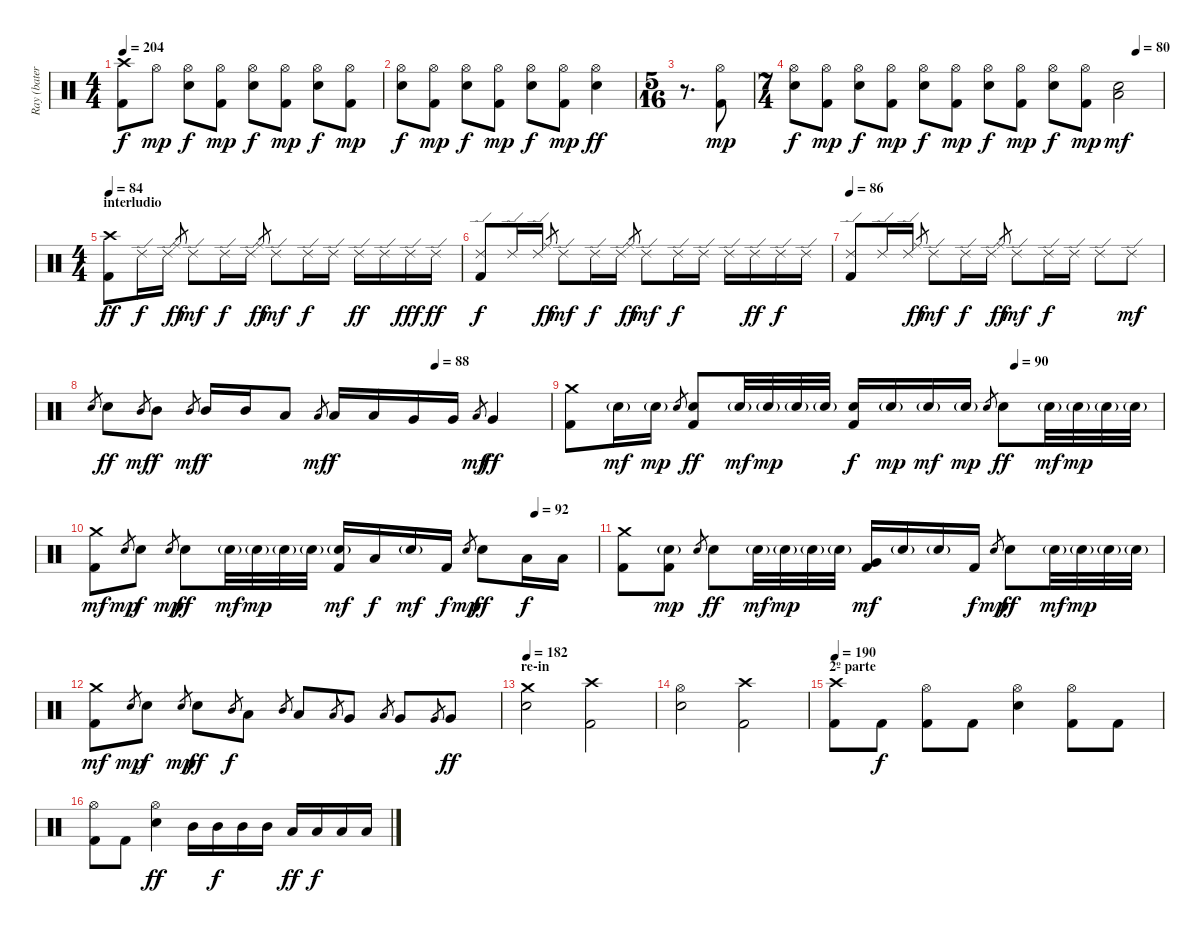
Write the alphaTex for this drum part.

\track ("Ray (batería)" "Ray (bater") {instrument percussion}
\staff {score}
\articulation defaults
\ts (4 4)
\tempo 204
\clef neutral
\ks c
("Crash high (hit)" "Kick (hit) 2").8{dy f} "Hi-Hat (open)".8{dy mp} ("Hi-Hat (open)" "Snare (hit) 2").8{dy f} ("Hi-Hat (open)" "Kick (hit) 2").8{dy mp} ("Hi-Hat (open)" "Snare (hit) 2").8{dy f} ("Hi-Hat (open)" "Kick (hit) 2").8{dy mp} ("Hi-Hat (open)" "Snare (hit) 2").8{dy f} ("Hi-Hat (open)" "Kick (hit) 2").8{dy mp} |
("Hi-Hat (open)" "Snare (hit) 2").8{dy f} ("Hi-Hat (open)" "Kick (hit) 2").8{dy mp} ("Hi-Hat (open)" "Snare (hit) 2").8{dy f} ("Hi-Hat (open)" "Kick (hit) 2").8{dy mp} ("Hi-Hat (open)" "Snare (hit) 2").8{dy f} ("Hi-Hat (open)" "Kick (hit) 2").8{dy mp} ("Hi-Hat (open)" "Snare (hit) 2").4{dy ff} |
\ts (5 16)
r.8{d} ("Hi-Hat (open)" "Kick (hit) 2").8{dy mp} |
\ts (7 4)
\tempo (80 0.9285714285714286)
("Hi-Hat (open)" "Snare (hit) 2").8{dy f} ("Hi-Hat (open)" "Kick (hit) 2").8{dy mp} ("Hi-Hat (open)" "Snare (hit) 2").8{dy f} ("Hi-Hat (open)" "Kick (hit) 2").8{dy mp} ("Hi-Hat (open)" "Snare (hit) 2").8{dy f} ("Hi-Hat (open)" "Kick (hit) 2").8{dy mp} ("Hi-Hat (open)" "Snare (hit) 2").8{dy f} ("Hi-Hat (open)" "Kick (hit) 2").8{dy mp} ("Hi-Hat (open)" "Snare (hit) 2").8{dy f} ("Hi-Hat (open)" "Kick (hit) 2").8{dy mp} ("Snare (hit) 2" "Low Tom (hit)").2{dy mf} |
\ts (4 4)
\section ("" "interludio")
\tempo 84
("Crash high (hit)" "Kick (hit) 2").8{dy ff} "Ride (edge) 2".16{dy f} "Ride (edge) 2".16 "Ride (middle)".8{gr dy ff} "Ride (edge) 2".8{dy mf} "Ride (edge) 2".16{dy f} "Ride (edge) 2".16 "Ride (middle)".8{gr dy ff} "Ride (edge) 2".8{dy mf} "Ride (edge) 2".16{dy f} "Ride (edge) 2".16 "Ride (edge) 2".16{dy ff} "Ride (edge) 2".16 "Ride (edge) 2".16{dy fff} "Ride (edge) 2".16{dy ff} |
("Ride (edge) 2" "Kick (hit) 2").8{dy f} "Ride (edge) 2".16 "Ride (edge) 2".16 "Ride (middle)".8{gr dy ff} "Ride (edge) 2".8{dy mf} "Ride (edge) 2".16{dy f} "Ride (edge) 2".16 "Ride (middle)".8{gr dy ff} "Ride (edge) 2".8{dy mf} "Ride (edge) 2".16{dy f} "Ride (edge) 2".16 "Ride (edge) 2".16 "Ride (edge) 2".16{dy ff} "Ride (edge) 2".16{dy f} "Ride (edge) 2".16 |
\tempo 86
("Ride (edge) 2" "Kick (hit) 2").8 "Ride (edge) 2".16 "Ride (edge) 2".16 "Ride (middle)".8{gr dy ff} "Ride (edge) 2".8{dy mf} "Ride (edge) 2".16{dy f} "Ride (edge) 2".16 "Ride (middle)".8{gr dy ff} "Ride (edge) 2".8{dy mf} "Ride (edge) 2".16{dy f} "Ride (edge) 2".16 "Ride (edge) 2".8 "Ride (edge) 2".8{dy mf} |
\tempo (88 0.75)
"Snare (hit) 2".8{gr} "Snare (hit) 2".8{dy ff} "Mid Tom (hit)".8{gr dy mf} "Mid Tom (hit)".8{dy f} "Mid Tom (hit)".8{gr dy mf} "Mid Tom (hit)".16{dy f} "Mid Tom (hit)".16 "Low Tom (hit)".8 "Low Tom (hit)".8{gr dy mf} "Low Tom (hit)".16{dy f} "Low Tom (hit)".16 "Very Low Tom (hit)".16 "Very Low Tom (hit)".16 "Low Tom (hit)".8{gr dy mf} "Very Low Tom (hit)".4{dy ff} |
\tempo (90 0.75)
("Crash medium (hit)" "Kick (hit) 2").8 "Snare (hit) 2"{g}.16{dy mf} "Snare (hit) 2"{g}.16{dy mp} "Snare (hit) 2".8{gr} ("Snare (hit) 2" "Kick (hit) 2").8{dy ff} "Snare (hit) 2"{g}.32{dy mf} "Snare (hit) 2"{g}.32{dy mp} "Snare (hit) 2"{g}.32 "Snare (hit) 2"{g}.32 ("Snare (hit) 2" "Kick (hit) 2").16{dy f} "Snare (hit) 2"{g}.16{dy mp} "Snare (hit) 2"{g}.16{dy mf} "Snare (hit) 2"{g}.16{dy mp} "Snare (hit) 2".8{gr} "Snare (hit) 2".8{dy ff} "Snare (hit) 2"{g}.32{dy mf} "Snare (hit) 2"{g}.32{dy mp} "Snare (hit) 2"{g}.32 "Snare (hit) 2"{g}.32 |
\tempo (92 0.875)
("Crash medium (hit)" "Kick (hit) 2").8{dy mf} "Snare (hit) 2".8{gr dy mp} "Snare (hit) 2".8{dy f} "Snare (hit) 2".8{gr dy mp} "Snare (hit) 2".8{dy ff} "Snare (hit) 2"{g}.32{dy mf} "Snare (hit) 2"{g}.32{dy mp} "Snare (hit) 2"{g}.32 "Snare (hit) 2"{g}.32 ("Snare (hit) 2"{g} "Kick (hit) 2").16{dy mf} "Low Tom (hit)".16{dy f} "Snare (hit) 2"{g}.16{dy mf} "Kick (hit) 2".16{dy f} "Snare (hit) 2".8{gr dy mp} "Snare (hit) 2".8{dy ff} "Low Tom (hit)".16{dy f} "Low Tom (hit)".16 |
("Crash medium (hit)" "Kick (hit) 2").8 ("Snare (hit) 2"{g} "Kick (hit) 2").8{dy mp} "Snare (hit) 2".8{gr} "Snare (hit) 2".8{dy ff} "Snare (hit) 2"{g}.32{dy mf} "Snare (hit) 2"{g}.32{dy mp} "Snare (hit) 2"{g}.32 "Snare (hit) 2"{g}.32 ("Very Low Tom (hit)" "Kick (hit) 2").16{dy mf} "Snare (hit) 2"{g}.16 "Snare (hit) 2"{g}.16 "Kick (hit) 2".16{dy f} "Snare (hit) 2".8{gr dy mp} "Snare (hit) 2".8{dy ff} "Snare (hit) 2"{g}.32{dy mf} "Snare (hit) 2"{g}.32{dy mp} "Snare (hit) 2"{g}.32 "Snare (hit) 2"{g}.32 |
("Crash medium (hit)" "Kick (hit) 2").8{dy mf} "Snare (hit) 2".8{gr dy mp} "Snare (hit) 2".8{dy f} "Snare (hit) 2".8{gr dy mp} "Snare (hit) 2".8{dy ff} "Mid Tom (hit)".8{gr dy f} "Low Tom (hit)".8 "Mid Tom (hit)".8{gr} "Low Tom (hit)".8 "Low Tom (hit)".8{gr} "Very Low Tom (hit)".8 "Low Tom (hit)".8{gr} "Very Low Tom (hit)".8 "Very Low Tom (hit)".8{gr} "Very Low Tom (hit)".8{dy ff} |
\section ("" "re-in")
\tempo 182
("Crash medium (hit)" "Snare (hit) 2").2 ("Crash high (hit)" "Kick (hit) 2").2 |
("Hi-Hat (open)" "Snare (hit) 2").2 ("Crash high (hit)" "Kick (hit) 2").2 |
\section ("" "2º parte")
\tempo 190
("Crash high (hit)" "Kick (hit) 2").8 "Kick (hit) 2".8{dy f} ("Hi-Hat (open)" "Kick (hit) 2").8 "Kick (hit) 2".8 ("Hi-Hat (open)" "Snare (hit) 2").4 ("Hi-Hat (open)" "Kick (hit) 2").8 "Kick (hit) 2".8 |
("Hi-Hat (open)" "Kick (hit) 2").8 "Kick (hit) 2".8 ("Hi-Hat (open)" "Snare (hit) 2").4{dy ff} "Mid Tom (hit)".16 "Mid Tom (hit)".16{dy f} "Mid Tom (hit)".16 "Mid Tom (hit)".16 "Low Tom (hit)".16{dy ff} "Low Tom (hit)".16{dy f} "Low Tom (hit)".16 "Low Tom (hit)".16
